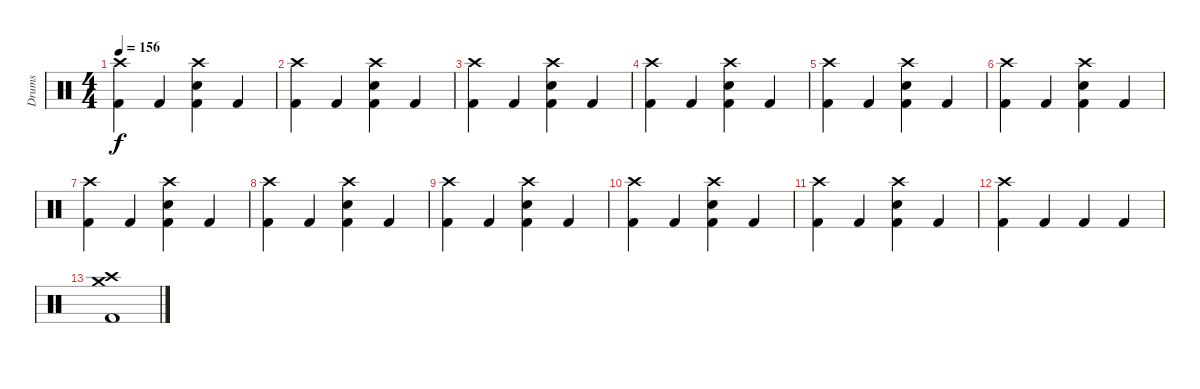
\track ("Drums" "Drums") {instrument percussion}
\staff {score}
\articulation defaults
\ts (4 4)
\tempo 156
\clef neutral
\ks c
("Crash high (hit)" "Kick (hit) 2").4{dy f} "Kick (hit) 2".4 ("Crash high (hit)" "Snare (hit) 2" "Kick (hit) 2").4 "Kick (hit) 2".4 |
("Crash high (hit)" "Kick (hit) 2").4 "Kick (hit) 2".4 ("Crash high (hit)" "Snare (hit) 2" "Kick (hit) 2").4 "Kick (hit) 2".4 |
("Crash high (hit)" "Kick (hit) 2").4 "Kick (hit) 2".4 ("Crash high (hit)" "Snare (hit) 2" "Kick (hit) 2").4 "Kick (hit) 2".4 |
("Crash high (hit)" "Kick (hit) 2").4 "Kick (hit) 2".4 ("Crash high (hit)" "Snare (hit) 2" "Kick (hit) 2").4 "Kick (hit) 2".4 |
("Crash high (hit)" "Kick (hit) 2").4 "Kick (hit) 2".4 ("Crash high (hit)" "Snare (hit) 2" "Kick (hit) 2").4 "Kick (hit) 2".4 |
("Crash high (hit)" "Kick (hit) 2").4 "Kick (hit) 2".4 ("Crash high (hit)" "Snare (hit) 2" "Kick (hit) 2").4 "Kick (hit) 2".4 |
("Crash high (hit)" "Kick (hit) 2").4 "Kick (hit) 2".4 ("Crash high (hit)" "Snare (hit) 2" "Kick (hit) 2").4 "Kick (hit) 2".4 |
("Crash high (hit)" "Kick (hit) 2").4 "Kick (hit) 2".4 ("Crash high (hit)" "Snare (hit) 2" "Kick (hit) 2").4 "Kick (hit) 2".4 |
("Crash high (hit)" "Kick (hit) 2").4 "Kick (hit) 2".4 ("Crash high (hit)" "Snare (hit) 2" "Kick (hit) 2").4 "Kick (hit) 2".4 |
("Crash high (hit)" "Kick (hit) 2").4 "Kick (hit) 2".4 ("Crash high (hit)" "Snare (hit) 2" "Kick (hit) 2").4 "Kick (hit) 2".4 |
("Crash high (hit)" "Kick (hit) 2").4 "Kick (hit) 2".4 ("Crash high (hit)" "Snare (hit) 2" "Kick (hit) 2").4 "Kick (hit) 2".4 |
("Crash high (hit)" "Kick (hit) 2").4 "Kick (hit) 2".4 "Kick (hit) 2".4 "Kick (hit) 2".4 |
("Crash high (hit)" "Crash medium (hit)" "Kick (hit) 2").1
